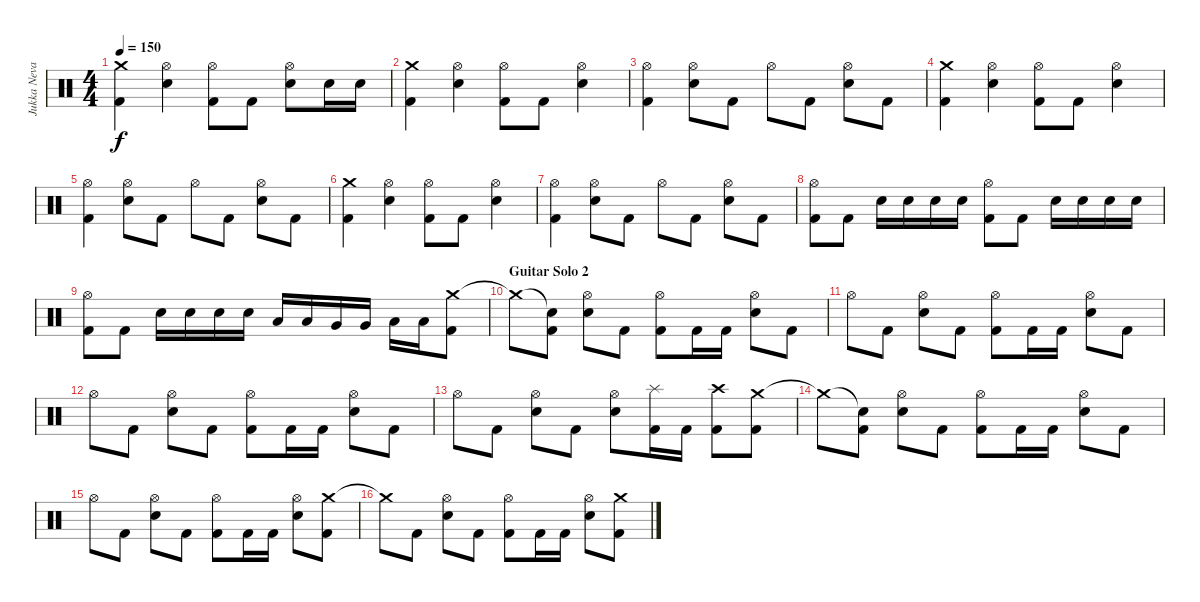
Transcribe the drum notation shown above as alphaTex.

\track ("Jukka Nevalainen" "Jukka Neva") {instrument percussion}
\staff {score}
\articulation defaults
\ts (4 4)
\tempo 150
\clef neutral
\ks c
("Crash medium (hit)" "Kick (hit) 2").4{dy f} ("Hi-Hat (open)" "Electric Snare (hit)").4 ("Hi-Hat (open)" "Kick (hit) 2").8 "Kick (hit) 2".8 ("Hi-Hat (open)" "Electric Snare (hit)").8 "Electric Snare (hit)".16 "Electric Snare (hit)".16 |
("Crash medium (hit)" "Kick (hit) 2").4 ("Hi-Hat (open)" "Electric Snare (hit)").4 ("Hi-Hat (open)" "Kick (hit) 2").8 "Kick (hit) 2".8 ("Hi-Hat (open)" "Electric Snare (hit)").4 |
("Hi-Hat (open)" "Kick (hit) 2").4 ("Hi-Hat (open)" "Electric Snare (hit)").8 "Kick (hit) 2".8 "Hi-Hat (open)".8 "Kick (hit) 2".8 ("Hi-Hat (open)" "Electric Snare (hit)").8 "Kick (hit) 2".8 |
("Crash medium (hit)" "Kick (hit) 2").4 ("Hi-Hat (open)" "Electric Snare (hit)").4 ("Hi-Hat (open)" "Kick (hit) 2").8 "Kick (hit) 2".8 ("Hi-Hat (open)" "Electric Snare (hit)").4 |
("Hi-Hat (open)" "Kick (hit) 2").4 ("Hi-Hat (open)" "Electric Snare (hit)").8 "Kick (hit) 2".8 "Hi-Hat (open)".8 "Kick (hit) 2".8 ("Hi-Hat (open)" "Electric Snare (hit)").8 "Kick (hit) 2".8 |
("Crash medium (hit)" "Kick (hit) 2").4 ("Hi-Hat (open)" "Electric Snare (hit)").4 ("Hi-Hat (open)" "Kick (hit) 2").8 "Kick (hit) 2".8 ("Hi-Hat (open)" "Electric Snare (hit)").4 |
("Hi-Hat (open)" "Kick (hit) 2").4 ("Hi-Hat (open)" "Electric Snare (hit)").8 "Kick (hit) 2".8 "Hi-Hat (open)".8 "Kick (hit) 2".8 ("Hi-Hat (open)" "Electric Snare (hit)").8 "Kick (hit) 2".8 |
("Hi-Hat (open)" "Kick (hit) 2").8 "Kick (hit) 2".8 "Electric Snare (hit)".16 "Electric Snare (hit)".16 "Electric Snare (hit)".16 "Electric Snare (hit)".16 ("Hi-Hat (open)" "Kick (hit) 2").8 "Kick (hit) 2".8 "Electric Snare (hit)".16 "Electric Snare (hit)".16 "Electric Snare (hit)".16 "Electric Snare (hit)".16 |
("Hi-Hat (open)" "Kick (hit) 2").8 "Kick (hit) 2".8 "Electric Snare (hit)".16 "Electric Snare (hit)".16 "Electric Snare (hit)".16 "Electric Snare (hit)".16 "Low Tom (hit)".16 "Low Tom (hit)".16 "Very Low Tom (hit)".16 "Very Low Tom (hit)".16 "Low Floor Tom (hit)".16 "Low Floor Tom (hit)".16 ("Crash medium (hit)" "Kick (hit) 2").8 |
\section ("" "Guitar Solo 2")
"Crash medium (hit)"{t}.8 ("Snare (hit)"{t} "Kick (hit) 2").8 ("Hi-Hat (open)" "Electric Snare (hit)").8 "Kick (hit) 2".8 ("Hi-Hat (open)" "Kick (hit) 2").8 "Kick (hit) 2".16 "Kick (hit) 2".16 ("Hi-Hat (open)" "Electric Snare (hit)").8 "Kick (hit) 2".8 |
"Hi-Hat (open)".8 "Kick (hit) 2".8 ("Hi-Hat (open)" "Electric Snare (hit)").8 "Kick (hit) 2".8 ("Hi-Hat (open)" "Kick (hit) 2").8 "Kick (hit) 2".16 "Kick (hit) 2".16 ("Hi-Hat (open)" "Electric Snare (hit)").8 "Kick (hit) 2".8 |
"Hi-Hat (open)".8 "Kick (hit) 2".8 ("Hi-Hat (open)" "Electric Snare (hit)").8 "Kick (hit) 2".8 ("Hi-Hat (open)" "Kick (hit) 2").8 "Kick (hit) 2".16 "Kick (hit) 2".16 ("Hi-Hat (open)" "Electric Snare (hit)").8 "Kick (hit) 2".8 |
"Hi-Hat (open)".8 "Kick (hit) 2".8 ("Hi-Hat (open)" "Electric Snare (hit)").8 "Kick (hit) 2".8 ("Hi-Hat (open)" "Electric Snare (hit)").8 ("Splash (hit)" "Kick (hit) 2").16 "Kick (hit) 2".16 ("Crash high (hit)" "Kick (hit) 2").8 ("Crash medium (hit)" "Kick (hit) 2").8 |
"Crash medium (hit)"{t}.8 ("Snare (hit)"{t} "Kick (hit) 2").8 ("Hi-Hat (open)" "Electric Snare (hit)").8 "Kick (hit) 2".8 ("Hi-Hat (open)" "Kick (hit) 2").8 "Kick (hit) 2".16 "Kick (hit) 2".16 ("Hi-Hat (open)" "Electric Snare (hit)").8 "Kick (hit) 2".8 |
"Hi-Hat (open)".8 "Kick (hit) 2".8 ("Hi-Hat (open)" "Electric Snare (hit)").8 "Kick (hit) 2".8 ("Hi-Hat (open)" "Kick (hit) 2").8 "Kick (hit) 2".16 "Kick (hit) 2".16 ("Hi-Hat (open)" "Electric Snare (hit)").8 ("Crash medium (hit)" "Kick (hit) 2").8 |
"Crash medium (hit)"{t}.8 "Kick (hit) 2".8 ("Hi-Hat (open)" "Electric Snare (hit)").8 "Kick (hit) 2".8 ("Hi-Hat (open)" "Kick (hit) 2").8 "Kick (hit) 2".16 "Kick (hit) 2".16 ("Hi-Hat (open)" "Electric Snare (hit)").8 ("Crash medium (hit)" "Kick (hit) 2").8
